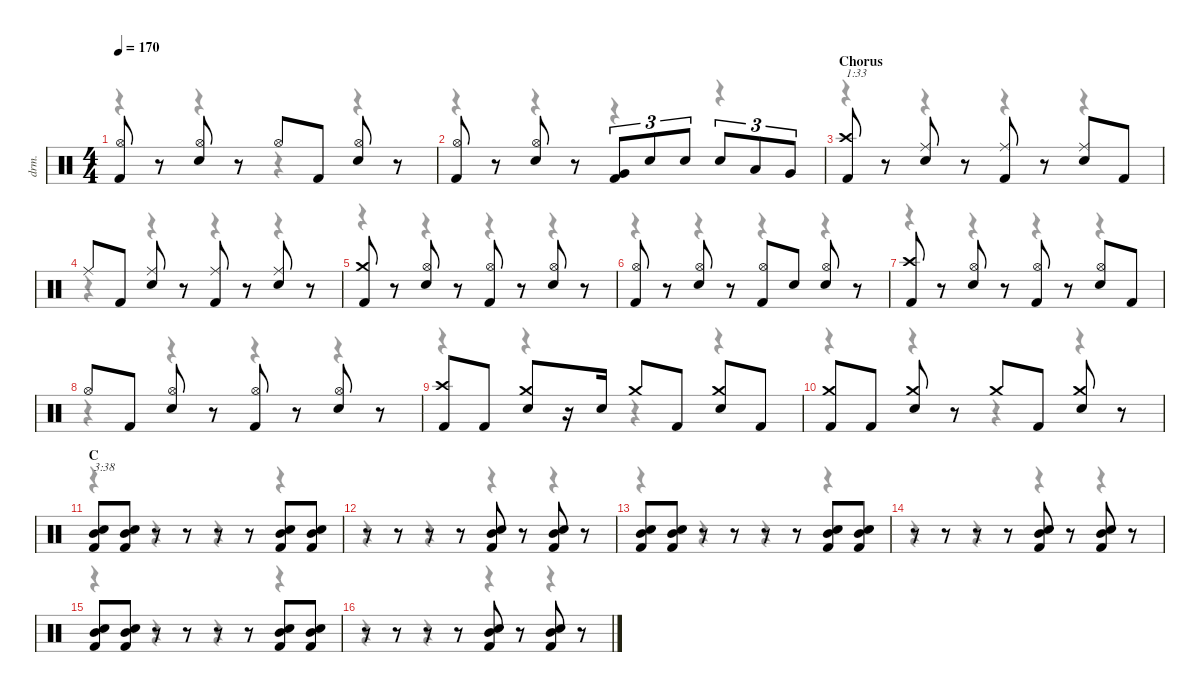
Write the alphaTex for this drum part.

\defaultSystemsLayout 4
\hideDynamics
\bracketExtendMode nobrackets
\otherSystemsTrackNameOrientation horizontal
\track ("Drums" "drm.") {instrument percussion}
\staff {score}
\articulation defaults
\voice
\ts (4 4)
\tempo 170
\clef neutral
\ks c
("Hi-Hat (open)" "Kick (hit) 2").8{dy f beam Up} r.8{beam Up} ("Hi-Hat (open)" "Snare (hit) 2").8{beam Up} r.8{beam Up} "Hi-Hat (open)".8{beam Up} "Kick (hit) 2".8{beam Up} ("Hi-Hat (open)" "Snare (hit) 2").8{beam Up} r.8{beam Up} |
("Hi-Hat (open)" "Kick (hit) 2").8{beam Up} r.8{beam Up} ("Hi-Hat (open)" "Snare (hit) 2").8{beam Up} r.8{beam Up} ("Very Low Tom (hit)" "Kick (hit) 2").8{tu (3 2) beam Up} "Snare (hit) 2".8{tu (3 2) beam Up} "Snare (hit) 2".8{tu (3 2) beam Up} "Snare (hit) 2".8{tu (3 2) beam Up} "Low Tom (hit)".8{tu (3 2) beam Up} "Very Low Tom (hit)".8{tu (3 2) beam Up} |
\section ("" "Chorus")
("Crash high (hit)" "Kick (hit) 2").8{txt "1:33" beam Up} r.8{beam Up} ("Ride (middle)" "Snare (hit) 2").8{beam Up} r.8{beam Up} ("Ride (middle)" "Kick (hit) 2").8{beam Up} r.8{beam Up} ("Ride (middle)" "Snare (hit) 2").8{beam Up} "Kick (hit) 2".8{beam Up} |
"Ride (middle)".8{beam Up} "Kick (hit) 2".8{beam Up} ("Ride (middle)" "Snare (hit) 2").8{beam Up} r.8{beam Up} ("Ride (middle)" "Kick (hit) 2").8{beam Up} r.8{beam Up} ("Ride (middle)" "Snare (hit) 2").8{beam Up} r.8{beam Up} |
("Crash medium (hit)" "Kick (hit) 2").8{beam Up} r.8{beam Up} ("Hi-Hat (open)" "Snare (hit) 2").8{beam Up} r.8{beam Up} ("Hi-Hat (open)" "Kick (hit) 2").8{beam Up} r.8{beam Up} ("Hi-Hat (open)" "Snare (hit) 2").8{beam Up} r.8{beam Up} |
("Hi-Hat (open)" "Kick (hit) 2").8{beam Up} r.8{beam Up} ("Hi-Hat (open)" "Snare (hit) 2").8{beam Up} r.8{beam Up} ("Hi-Hat (open)" "Kick (hit) 2").8{beam Up} "Snare (hit) 2".8{beam Up} ("Hi-Hat (open)" "Snare (hit) 2").8{beam Up} r.8{beam Up} |
("Crash high (hit)" "Kick (hit) 2").8{beam Up} r.8{beam Up} ("Hi-Hat (open)" "Snare (hit) 2").8{beam Up} r.8{beam Up} ("Hi-Hat (open)" "Kick (hit) 2").8{beam Up} r.8{beam Up} ("Hi-Hat (open)" "Snare (hit) 2").8{beam Up} "Kick (hit) 2".8{beam Up} |
"Hi-Hat (open)".8{beam Up} "Kick (hit) 2".8{beam Up} ("Hi-Hat (open)" "Snare (hit) 2").8{beam Up} r.8{beam Up} ("Hi-Hat (open)" "Kick (hit) 2").8{beam Up} r.8{beam Up} ("Hi-Hat (open)" "Snare (hit) 2").8{beam Up} r.8{beam Up} |
("Crash high (hit)" "Kick (hit) 2").8{beam Up} "Kick (hit) 2".8{beam Up} ("Crash medium (hit)" "Snare (hit) 2").8{beam Up} r.16{beam Up} "Snare (hit) 2".16{beam Up} "Crash medium (hit)".8{beam Up} "Kick (hit) 2".8{beam Up} ("Crash medium (hit)" "Snare (hit) 2").8{beam Up} "Kick (hit) 2".8{beam Up} |
("Crash medium (hit)" "Kick (hit) 2").8{beam Up} "Kick (hit) 2".8{beam Up} ("Crash medium (hit)" "Snare (hit) 2").8{beam Up} r.8{beam Up} "Crash medium (hit)".8{beam Up} "Kick (hit) 2".8{beam Up} ("Crash medium (hit)" "Snare (hit) 2").8{beam Up} r.8{beam Up} |
\section ("" "C")
("Mid Tom (hit)" "Snare (hit) 2" "Kick (hit) 2").8{txt "3:38" beam Up} ("Mid Tom (hit)" "Snare (hit) 2" "Kick (hit) 2").8{beam Up} r.8{beam Up} r.8{beam Up} r.8{beam Up} r.8{beam Up} ("Mid Tom (hit)" "Snare (hit) 2" "Kick (hit) 2").8{beam Up} ("Mid Tom (hit)" "Snare (hit) 2" "Kick (hit) 2").8{beam Up} |
r.8{beam Up} r.8{beam Up} r.8{beam Up} r.8{beam Up} ("Mid Tom (hit)" "Snare (hit) 2" "Kick (hit) 2").8{beam Up} r.8{beam Up} ("Mid Tom (hit)" "Snare (hit) 2" "Kick (hit) 2").8{beam Up} r.8{beam Up} |
("Mid Tom (hit)" "Snare (hit) 2" "Kick (hit) 2").8{beam Up} ("Mid Tom (hit)" "Snare (hit) 2" "Kick (hit) 2").8{beam Up} r.8{beam Up} r.8{beam Up} r.8{beam Up} r.8{beam Up} ("Mid Tom (hit)" "Snare (hit) 2" "Kick (hit) 2").8{beam Up} ("Mid Tom (hit)" "Snare (hit) 2" "Kick (hit) 2").8{beam Up} |
r.8{beam Up} r.8{beam Up} r.8{beam Up} r.8{beam Up} ("Mid Tom (hit)" "Snare (hit) 2" "Kick (hit) 2").8{beam Up} r.8{beam Up} ("Mid Tom (hit)" "Snare (hit) 2" "Kick (hit) 2").8{beam Up} r.8{beam Up} |
("Mid Tom (hit)" "Snare (hit) 2" "Kick (hit) 2").8{beam Up} ("Mid Tom (hit)" "Snare (hit) 2" "Kick (hit) 2").8{beam Up} r.8{beam Up} r.8{beam Up} r.8{beam Up} r.8{beam Up} ("Mid Tom (hit)" "Snare (hit) 2" "Kick (hit) 2").8{beam Up} ("Mid Tom (hit)" "Snare (hit) 2" "Kick (hit) 2").8{beam Up} |
r.8{beam Up} r.8{beam Up} r.8{beam Up} r.8{beam Up} ("Mid Tom (hit)" "Snare (hit) 2" "Kick (hit) 2").8{beam Up} r.8{beam Up} ("Mid Tom (hit)" "Snare (hit) 2" "Kick (hit) 2").8{beam Up} r.8{beam Up}
\voice
\clef neutral
\ottava regular
\simile none
\ks c
r.4{dy mf beam Down} r.4{beam Down} r.4{beam Down} r.4{beam Down} |
r.4{beam Down} r.4{beam Down} r.4{beam Down} r.4{beam Down} |
r.4{beam Down} r.4{beam Down} r.4{beam Down} r.4{beam Down} |
r.4{beam Down} r.4{beam Down} r.4{beam Down} r.4{beam Down} |
r.4{beam Down} r.4{beam Down} r.4{beam Down} r.4{beam Down} |
r.4{beam Down} r.4{beam Down} r.4{beam Down} r.4{beam Down} |
r.4{beam Down} r.4{beam Down} r.4{beam Down} r.4{beam Down} |
r.4{beam Down} r.4{beam Down} r.4{beam Down} r.4{beam Down} |
r.4{beam Down} r.4{beam Down} r.4{beam Down} r.4{beam Down} |
r.4{beam Down} r.4{beam Down} r.4{beam Down} r.4{beam Down} |
r.4{beam Down} r.4{beam Down} r.4{beam Down} r.4{beam Down} |
r.4{beam Down} r.4{beam Down} r.4{beam Down} r.4{beam Down} |
r.4{beam Down} r.4{beam Down} r.4{beam Down} r.4{beam Down} |
r.4{beam Down} r.4{beam Down} r.4{beam Down} r.4{beam Down} |
r.4{beam Down} r.4{beam Down} r.4{beam Down} r.4{beam Down} |
r.4{beam Down} r.4{beam Down} r.4{beam Down} r.4{beam Down}
